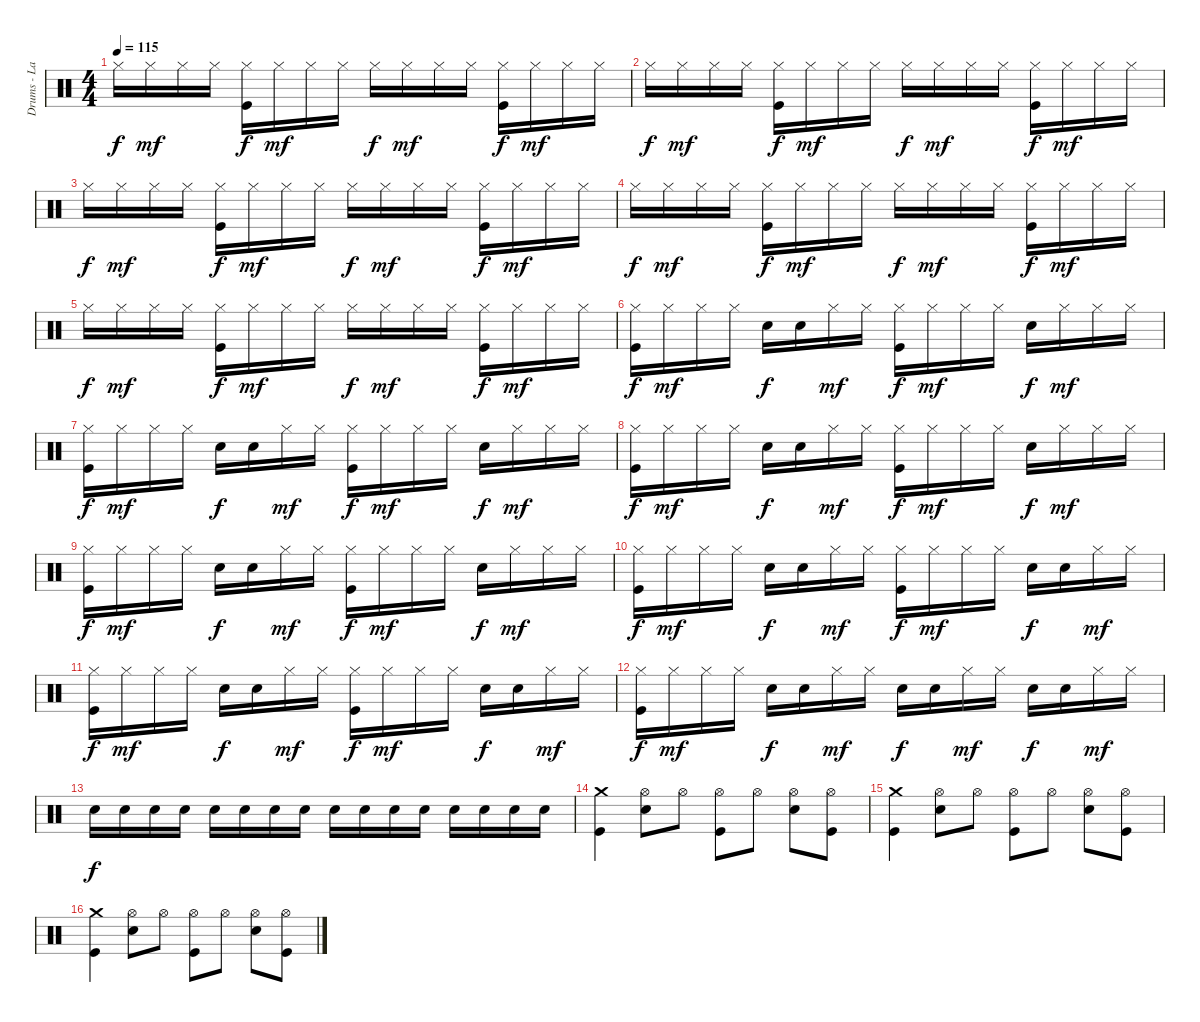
\track ("Drums - Lars Ulrich" "Drums - La") {instrument percussion}
\staff {score}
\articulation defaults
\ts (4 4)
\tempo 115
\clef neutral
\ks c "Hi-Hat (closed)".16{dy f} "Hi-Hat (closed)".16{dy mf} "Hi-Hat (closed)".16 "Hi-Hat (closed)".16
("Kick (hit)" "Hi-Hat (closed)").16{dy f} "Hi-Hat (closed)".16{dy mf} "Hi-Hat (closed)".16 "Hi-Hat (closed)".16 "Hi-Hat (closed)".16{dy f} "Hi-Hat (closed)".16{dy mf} "Hi-Hat (closed)".16 "Hi-Hat (closed)".16 ("Kick (hit)" "Hi-Hat (closed)").16{dy f} "Hi-Hat (closed)".16{dy mf} "Hi-Hat (closed)".16 "Hi-Hat (closed)".16 |
"Hi-Hat (closed)".16{dy f} "Hi-Hat (closed)".16{dy mf} "Hi-Hat (closed)".16 "Hi-Hat (closed)".16 ("Kick (hit)" "Hi-Hat (closed)").16{dy f} "Hi-Hat (closed)".16{dy mf} "Hi-Hat (closed)".16 "Hi-Hat (closed)".16 "Hi-Hat (closed)".16{dy f} "Hi-Hat (closed)".16{dy mf} "Hi-Hat (closed)".16 "Hi-Hat (closed)".16 ("Kick (hit)" "Hi-Hat (closed)").16{dy f} "Hi-Hat (closed)".16{dy mf} "Hi-Hat (closed)".16 "Hi-Hat (closed)".16 |
"Hi-Hat (closed)".16{dy f} "Hi-Hat (closed)".16{dy mf} "Hi-Hat (closed)".16 "Hi-Hat (closed)".16 ("Kick (hit)" "Hi-Hat (closed)").16{dy f} "Hi-Hat (closed)".16{dy mf} "Hi-Hat (closed)".16 "Hi-Hat (closed)".16 "Hi-Hat (closed)".16{dy f} "Hi-Hat (closed)".16{dy mf} "Hi-Hat (closed)".16 "Hi-Hat (closed)".16 ("Kick (hit)" "Hi-Hat (closed)").16{dy f} "Hi-Hat (closed)".16{dy mf} "Hi-Hat (closed)".16 "Hi-Hat (closed)".16 |
"Hi-Hat (closed)".16{dy f} "Hi-Hat (closed)".16{dy mf} "Hi-Hat (closed)".16 "Hi-Hat (closed)".16 ("Kick (hit)" "Hi-Hat (closed)").16{dy f} "Hi-Hat (closed)".16{dy mf} "Hi-Hat (closed)".16 "Hi-Hat (closed)".16 "Hi-Hat (closed)".16{dy f} "Hi-Hat (closed)".16{dy mf} "Hi-Hat (closed)".16 "Hi-Hat (closed)".16 ("Kick (hit)" "Hi-Hat (closed)").16{dy f} "Hi-Hat (closed)".16{dy mf} "Hi-Hat (closed)".16 "Hi-Hat (closed)".16 |
"Hi-Hat (closed)".16{dy f} "Hi-Hat (closed)".16{dy mf} "Hi-Hat (closed)".16 "Hi-Hat (closed)".16 ("Kick (hit)" "Hi-Hat (closed)").16{dy f} "Hi-Hat (closed)".16{dy mf} "Hi-Hat (closed)".16 "Hi-Hat (closed)".16 "Hi-Hat (closed)".16{dy f} "Hi-Hat (closed)".16{dy mf} "Hi-Hat (closed)".16 "Hi-Hat (closed)".16 ("Kick (hit)" "Hi-Hat (closed)").16{dy f} "Hi-Hat (closed)".16{dy mf} "Hi-Hat (closed)".16 "Hi-Hat (closed)".16 |
("Kick (hit)" "Hi-Hat (closed)").16{dy f} "Hi-Hat (closed)".16{dy mf} "Hi-Hat (closed)".16 "Hi-Hat (closed)".16 "Electric Snare (hit)".16{dy f} "Electric Snare (hit)".16 "Hi-Hat (closed)".16{dy mf} "Hi-Hat (closed)".16 ("Kick (hit)" "Hi-Hat (closed)").16{dy f} "Hi-Hat (closed)".16{dy mf} "Hi-Hat (closed)".16 "Hi-Hat (closed)".16 "Electric Snare (hit)".16{dy f} "Hi-Hat (closed)".16{dy mf} "Hi-Hat (closed)".16 "Hi-Hat (closed)".16 |
("Kick (hit)" "Hi-Hat (closed)").16{dy f} "Hi-Hat (closed)".16{dy mf} "Hi-Hat (closed)".16 "Hi-Hat (closed)".16 "Electric Snare (hit)".16{dy f} "Electric Snare (hit)".16 "Hi-Hat (closed)".16{dy mf} "Hi-Hat (closed)".16 ("Kick (hit)" "Hi-Hat (closed)").16{dy f} "Hi-Hat (closed)".16{dy mf} "Hi-Hat (closed)".16 "Hi-Hat (closed)".16 "Electric Snare (hit)".16{dy f} "Hi-Hat (closed)".16{dy mf} "Hi-Hat (closed)".16 "Hi-Hat (closed)".16 |
("Kick (hit)" "Hi-Hat (closed)").16{dy f} "Hi-Hat (closed)".16{dy mf} "Hi-Hat (closed)".16 "Hi-Hat (closed)".16 "Electric Snare (hit)".16{dy f} "Electric Snare (hit)".16 "Hi-Hat (closed)".16{dy mf} "Hi-Hat (closed)".16 ("Kick (hit)" "Hi-Hat (closed)").16{dy f} "Hi-Hat (closed)".16{dy mf} "Hi-Hat (closed)".16 "Hi-Hat (closed)".16 "Electric Snare (hit)".16{dy f} "Hi-Hat (closed)".16{dy mf} "Hi-Hat (closed)".16 "Hi-Hat (closed)".16 |
("Kick (hit)" "Hi-Hat (closed)").16{dy f} "Hi-Hat (closed)".16{dy mf} "Hi-Hat (closed)".16 "Hi-Hat (closed)".16 "Electric Snare (hit)".16{dy f} "Electric Snare (hit)".16 "Hi-Hat (closed)".16{dy mf} "Hi-Hat (closed)".16 ("Kick (hit)" "Hi-Hat (closed)").16{dy f} "Hi-Hat (closed)".16{dy mf} "Hi-Hat (closed)".16 "Hi-Hat (closed)".16 "Electric Snare (hit)".16{dy f} "Hi-Hat (closed)".16{dy mf} "Hi-Hat (closed)".16 "Hi-Hat (closed)".16 |
("Kick (hit)" "Hi-Hat (closed)").16{dy f} "Hi-Hat (closed)".16{dy mf} "Hi-Hat (closed)".16 "Hi-Hat (closed)".16 "Electric Snare (hit)".16{dy f} "Electric Snare (hit)".16 "Hi-Hat (closed)".16{dy mf} "Hi-Hat (closed)".16 ("Kick (hit)" "Hi-Hat (closed)").16{dy f} "Hi-Hat (closed)".16{dy mf} "Hi-Hat (closed)".16 "Hi-Hat (closed)".16 "Electric Snare (hit)".16{dy f} "Electric Snare (hit)".16 "Hi-Hat (closed)".16{dy mf} "Hi-Hat (closed)".16 |
("Kick (hit)" "Hi-Hat (closed)").16{dy f} "Hi-Hat (closed)".16{dy mf} "Hi-Hat (closed)".16 "Hi-Hat (closed)".16 "Electric Snare (hit)".16{dy f} "Electric Snare (hit)".16 "Hi-Hat (closed)".16{dy mf} "Hi-Hat (closed)".16 ("Kick (hit)" "Hi-Hat (closed)").16{dy f} "Hi-Hat (closed)".16{dy mf} "Hi-Hat (closed)".16 "Hi-Hat (closed)".16 "Electric Snare (hit)".16{dy f} "Electric Snare (hit)".16 "Hi-Hat (closed)".16{dy mf} "Hi-Hat (closed)".16 |
("Kick (hit)" "Hi-Hat (closed)").16{dy f} "Hi-Hat (closed)".16{dy mf} "Hi-Hat (closed)".16 "Hi-Hat (closed)".16 "Electric Snare (hit)".16{dy f} "Electric Snare (hit)".16 "Hi-Hat (closed)".16{dy mf} "Hi-Hat (closed)".16 "Electric Snare (hit)".16{dy f} "Electric Snare (hit)".16 "Hi-Hat (closed)".16{dy mf} "Hi-Hat (closed)".16 "Electric Snare (hit)".16{dy f} "Electric Snare (hit)".16 "Hi-Hat (closed)".16{dy mf} "Hi-Hat (closed)".16 |
"Electric Snare (hit)".16{dy f} "Electric Snare (hit)".16 "Electric Snare (hit)".16 "Electric Snare (hit)".16 "Electric Snare (hit)".16 "Electric Snare (hit)".16 "Electric Snare (hit)".16 "Electric Snare (hit)".16 "Electric Snare (hit)".16 "Electric Snare (hit)".16 "Electric Snare (hit)".16 "Electric Snare (hit)".16 "Electric Snare (hit)".16 "Electric Snare (hit)".16 "Electric Snare (hit)".16 "Electric Snare (hit)".16 |
("Kick (hit)" "Crash medium (hit)").4 ("Electric Snare (hit)" "Hi-Hat (open)").8 "Hi-Hat (open)".8 ("Kick (hit)" "Hi-Hat (open)").8 "Hi-Hat (open)".8 ("Electric Snare (hit)" "Hi-Hat (open)").8 ("Kick (hit)" "Hi-Hat (open)").8 |
("Kick (hit)" "Crash medium (hit)").4 ("Electric Snare (hit)" "Hi-Hat (open)").8 "Hi-Hat (open)".8 ("Kick (hit)" "Hi-Hat (open)").8 "Hi-Hat (open)".8 ("Electric Snare (hit)" "Hi-Hat (open)").8 ("Kick (hit)" "Hi-Hat (open)").8 |
("Kick (hit)" "Crash medium (hit)").4 ("Electric Snare (hit)" "Hi-Hat (open)").8 "Hi-Hat (open)".8 ("Kick (hit)" "Hi-Hat (open)").8 "Hi-Hat (open)".8 ("Electric Snare (hit)" "Hi-Hat (open)").8 ("Kick (hit)" "Hi-Hat (open)").8
